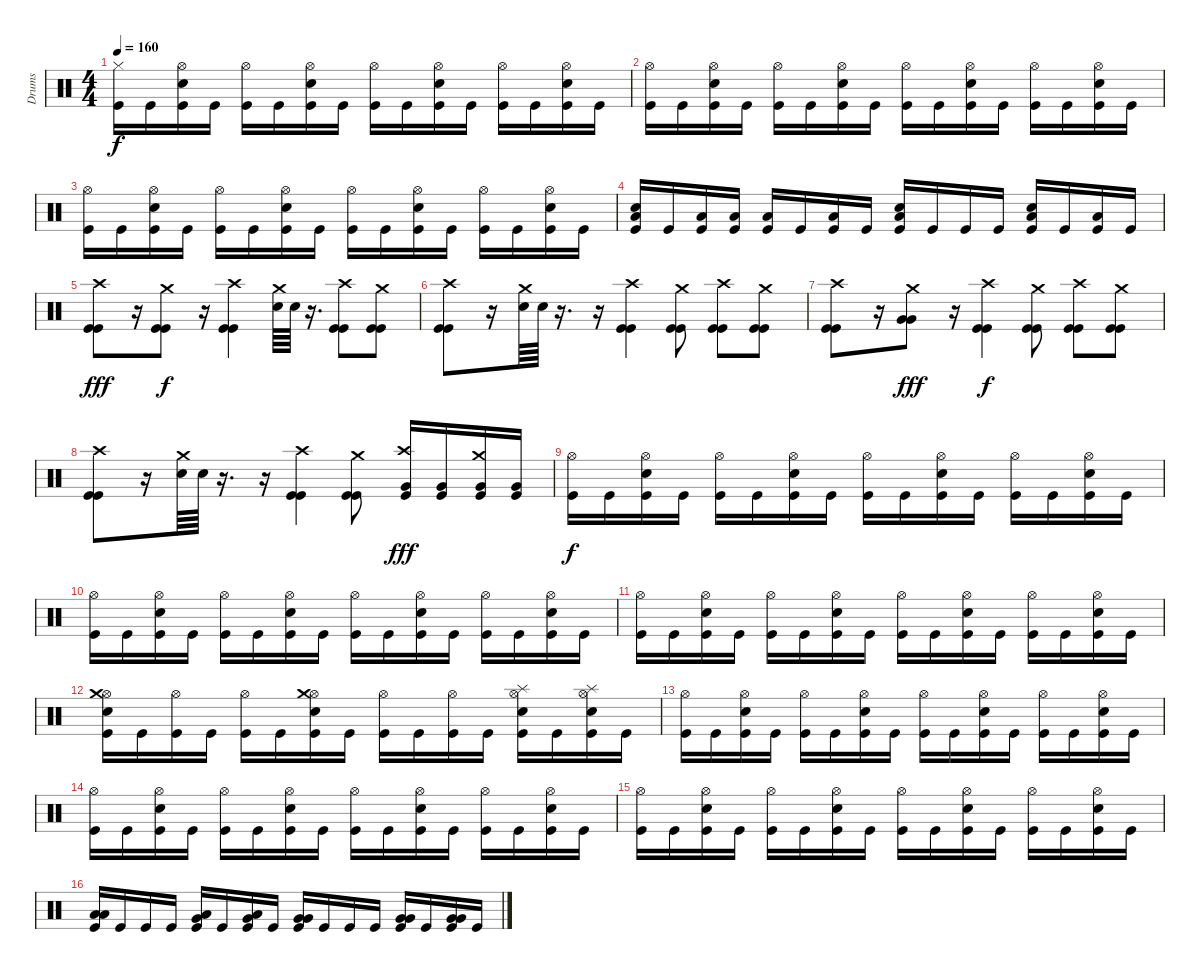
\track ("Drums" "Drums") {instrument percussion}
\staff {score}
\articulation defaults
\ts (4 4)
\tempo 160
\clef neutral
\ks c
("Kick (hit)" "Hi-Hat (closed)").16{dy f} "Kick (hit)".16 ("Electric Snare (hit)" "Kick (hit)" "Hi-Hat (open)").16 "Kick (hit)".16 ("Kick (hit)" "Hi-Hat (open)").16 "Kick (hit)".16 ("Electric Snare (hit)" "Kick (hit)" "Hi-Hat (open)").16 "Kick (hit)".16 ("Kick (hit)" "Hi-Hat (open)").16 "Kick (hit)".16 ("Electric Snare (hit)" "Kick (hit)" "Hi-Hat (open)").16 "Kick (hit)".16 ("Kick (hit)" "Hi-Hat (open)").16 "Kick (hit)".16 ("Electric Snare (hit)" "Kick (hit)" "Hi-Hat (open)").16 "Kick (hit)".16 |
("Kick (hit)" "Hi-Hat (open)").16 "Kick (hit)".16 ("Electric Snare (hit)" "Kick (hit)" "Hi-Hat (open)").16 "Kick (hit)".16 ("Kick (hit)" "Hi-Hat (open)").16 "Kick (hit)".16 ("Electric Snare (hit)" "Kick (hit)" "Hi-Hat (open)").16 "Kick (hit)".16 ("Kick (hit)" "Hi-Hat (open)").16 "Kick (hit)".16 ("Electric Snare (hit)" "Kick (hit)" "Hi-Hat (open)").16 "Kick (hit)".16 ("Kick (hit)" "Hi-Hat (open)").16 "Kick (hit)".16 ("Electric Snare (hit)" "Kick (hit)" "Hi-Hat (open)").16 "Kick (hit)".16 |
("Kick (hit)" "Hi-Hat (open)").16 "Kick (hit)".16 ("Electric Snare (hit)" "Kick (hit)" "Hi-Hat (open)").16 "Kick (hit)".16 ("Kick (hit)" "Hi-Hat (open)").16 "Kick (hit)".16 ("Electric Snare (hit)" "Kick (hit)" "Hi-Hat (open)").16 "Kick (hit)".16 ("Kick (hit)" "Hi-Hat (open)").16 "Kick (hit)".16 ("Electric Snare (hit)" "Kick (hit)" "Hi-Hat (open)").16 "Kick (hit)".16 ("Kick (hit)" "Hi-Hat (open)").16 "Kick (hit)".16 ("Electric Snare (hit)" "Kick (hit)" "Hi-Hat (open)").16 "Kick (hit)".16 |
("Electric Snare (hit)" "Kick (hit)" "Low Floor Tom (hit)").16 "Kick (hit)".16 ("Kick (hit)" "Low Floor Tom (hit)").16 ("Kick (hit)" "Low Floor Tom (hit)").16 ("Kick (hit)" "Low Floor Tom (hit)").16 "Kick (hit)".16 ("Kick (hit)" "Low Floor Tom (hit)").16 "Kick (hit)".16 ("Electric Snare (hit)" "Kick (hit)" "Low Floor Tom (hit)").16 "Kick (hit)".16 "Kick (hit)".16 "Kick (hit)".16 ("Electric Snare (hit)" "Kick (hit)" "Low Floor Tom (hit)").16 "Kick (hit)".16 ("Kick (hit)" "Low Floor Tom (hit)").16 "Kick (hit)".16 |
("Kick (hit)" "Kick (hit)" "Crash high (hit)").8{dy fff} r.16 ("Kick (hit)" "Kick (hit)" "Crash medium (hit)").8{dy f} r.16 ("Kick (hit)" "Kick (hit)" "Crash high (hit)").4 ("Electric Snare (hit)" "Crash medium (hit)").64 "Electric Snare (hit)".64 r.16{d} ("Kick (hit)" "Kick (hit)" "Crash high (hit)").8 ("Kick (hit)" "Kick (hit)" "Crash medium (hit)").8 |
("Kick (hit)" "Kick (hit)" "Crash high (hit)").8 r.16 ("Electric Snare (hit)" "Crash medium (hit)").64 "Electric Snare (hit)".64 r.16{d} r.16 ("Kick (hit)" "Kick (hit)" "Crash high (hit)").4 ("Kick (hit)" "Kick (hit)" "Crash medium (hit)").8 ("Kick (hit)" "Kick (hit)" "Crash high (hit)").8 ("Kick (hit)" "Kick (hit)" "Crash medium (hit)").8 |
("Kick (hit)" "Kick (hit)" "Crash high (hit)").8 r.16 ("Very Low Tom (hit)" "Very Low Tom (hit)" "Crash medium (hit)").8{dy fff} r.16 ("Kick (hit)" "Kick (hit)" "Crash high (hit)").4{dy f} ("Kick (hit)" "Kick (hit)" "Crash medium (hit)").8 ("Kick (hit)" "Kick (hit)" "Crash high (hit)").8 ("Kick (hit)" "Kick (hit)" "Crash medium (hit)").8 |
("Kick (hit)" "Kick (hit)" "Crash high (hit)").8 r.16 ("Electric Snare (hit)" "Crash medium (hit)").64 "Electric Snare (hit)".64 r.16{d} r.16 ("Kick (hit)" "Kick (hit)" "Crash high (hit)").4 ("Kick (hit)" "Kick (hit)" "Crash medium (hit)").8 ("Very Low Tom (hit)" "Kick (hit)" "Crash high (hit)").16{dy fff} ("Very Low Tom (hit)" "Kick (hit)").16 ("Very Low Tom (hit)" "Kick (hit)" "Crash medium (hit)").16 ("Very Low Tom (hit)" "Kick (hit)").16 |
("Kick (hit)" "Hi-Hat (open)").16{dy f} "Kick (hit)".16 ("Electric Snare (hit)" "Kick (hit)" "Hi-Hat (open)").16 "Kick (hit)".16 ("Kick (hit)" "Hi-Hat (open)").16 "Kick (hit)".16 ("Electric Snare (hit)" "Kick (hit)" "Hi-Hat (open)").16 "Kick (hit)".16 ("Kick (hit)" "Hi-Hat (open)").16 "Kick (hit)".16 ("Electric Snare (hit)" "Kick (hit)" "Hi-Hat (open)").16 "Kick (hit)".16 ("Kick (hit)" "Hi-Hat (open)").16 "Kick (hit)".16 ("Electric Snare (hit)" "Kick (hit)" "Hi-Hat (open)").16 "Kick (hit)".16 |
("Kick (hit)" "Hi-Hat (open)").16 "Kick (hit)".16 ("Electric Snare (hit)" "Kick (hit)" "Hi-Hat (open)").16 "Kick (hit)".16 ("Kick (hit)" "Hi-Hat (open)").16 "Kick (hit)".16 ("Electric Snare (hit)" "Kick (hit)" "Hi-Hat (open)").16 "Kick (hit)".16 ("Kick (hit)" "Hi-Hat (open)").16 "Kick (hit)".16 ("Electric Snare (hit)" "Kick (hit)" "Hi-Hat (open)").16 "Kick (hit)".16 ("Kick (hit)" "Hi-Hat (open)").16 "Kick (hit)".16 ("Electric Snare (hit)" "Kick (hit)" "Hi-Hat (open)").16 "Kick (hit)".16 |
("Kick (hit)" "Hi-Hat (open)").16 "Kick (hit)".16 ("Electric Snare (hit)" "Kick (hit)" "Hi-Hat (open)").16 "Kick (hit)".16 ("Kick (hit)" "Hi-Hat (open)").16 "Kick (hit)".16 ("Electric Snare (hit)" "Kick (hit)" "Hi-Hat (open)").16 "Kick (hit)".16 ("Kick (hit)" "Hi-Hat (open)").16 "Kick (hit)".16 ("Electric Snare (hit)" "Kick (hit)" "Hi-Hat (open)").16 "Kick (hit)".16 ("Kick (hit)" "Hi-Hat (open)").16 "Kick (hit)".16 ("Electric Snare (hit)" "Kick (hit)" "Hi-Hat (open)").16 "Kick (hit)".16 |
("Electric Snare (hit)" "Kick (hit)" "Hi-Hat (open)" "Crash medium (hit)").16 "Kick (hit)".16 ("Kick (hit)" "Hi-Hat (open)").16 "Kick (hit)".16 ("Kick (hit)" "Hi-Hat (open)").16 "Kick (hit)".16 ("Electric Snare (hit)" "Kick (hit)" "Hi-Hat (open)" "Crash medium (hit)").16 "Kick (hit)".16 ("Kick (hit)" "Hi-Hat (open)").16 "Kick (hit)".16 ("Kick (hit)" "Hi-Hat (open)").16 "Kick (hit)".16 ("Electric Snare (hit)" "Kick (hit)" "Hi-Hat (open)" "Splash (hit)").16 "Kick (hit)".16 ("Electric Snare (hit)" "Kick (hit)" "Hi-Hat (open)" "Splash (hit)").16 "Kick (hit)".16 |
("Kick (hit)" "Hi-Hat (open)").16 "Kick (hit)".16 ("Electric Snare (hit)" "Kick (hit)" "Hi-Hat (open)").16 "Kick (hit)".16 ("Kick (hit)" "Hi-Hat (open)").16 "Kick (hit)".16 ("Electric Snare (hit)" "Kick (hit)" "Hi-Hat (open)").16 "Kick (hit)".16 ("Kick (hit)" "Hi-Hat (open)").16 "Kick (hit)".16 ("Electric Snare (hit)" "Kick (hit)" "Hi-Hat (open)").16 "Kick (hit)".16 ("Kick (hit)" "Hi-Hat (open)").16 "Kick (hit)".16 ("Electric Snare (hit)" "Kick (hit)" "Hi-Hat (open)").16 "Kick (hit)".16 |
("Kick (hit)" "Hi-Hat (open)").16 "Kick (hit)".16 ("Electric Snare (hit)" "Kick (hit)" "Hi-Hat (open)").16 "Kick (hit)".16 ("Kick (hit)" "Hi-Hat (open)").16 "Kick (hit)".16 ("Electric Snare (hit)" "Kick (hit)" "Hi-Hat (open)").16 "Kick (hit)".16 ("Kick (hit)" "Hi-Hat (open)").16 "Kick (hit)".16 ("Electric Snare (hit)" "Kick (hit)" "Hi-Hat (open)").16 "Kick (hit)".16 ("Kick (hit)" "Hi-Hat (open)").16 "Kick (hit)".16 ("Electric Snare (hit)" "Kick (hit)" "Hi-Hat (open)").16 "Kick (hit)".16 |
("Kick (hit)" "Hi-Hat (open)").16 "Kick (hit)".16 ("Electric Snare (hit)" "Kick (hit)" "Hi-Hat (open)").16 "Kick (hit)".16 ("Kick (hit)" "Hi-Hat (open)").16 "Kick (hit)".16 ("Electric Snare (hit)" "Kick (hit)" "Hi-Hat (open)").16 "Kick (hit)".16 ("Kick (hit)" "Hi-Hat (open)").16 "Kick (hit)".16 ("Electric Snare (hit)" "Kick (hit)" "Hi-Hat (open)").16 "Kick (hit)".16 ("Kick (hit)" "Hi-Hat (open)").16 "Kick (hit)".16 ("Electric Snare (hit)" "Kick (hit)" "Hi-Hat (open)").16 "Kick (hit)".16 |
("Low Floor Tom (hit)" "Kick (hit)" "Low Floor Tom (hit)").16 "Kick (hit)".16 "Kick (hit)".16 "Kick (hit)".16 ("Low Floor Tom (hit)" "Kick (hit)" "Very Low Tom (hit)").16 "Kick (hit)".16 ("Low Floor Tom (hit)" "Kick (hit)" "Very Low Tom (hit)").16 "Kick (hit)".16 ("Very Low Tom (hit)" "Kick (hit)" "Very Low Tom (hit)").16 "Kick (hit)".16 "Kick (hit)".16 "Kick (hit)".16 ("Very Low Tom (hit)" "Kick (hit)" "Very Low Tom (hit)").16 "Kick (hit)".16 ("Very Low Tom (hit)" "Kick (hit)" "Very Low Tom (hit)").16 "Kick (hit)".16
